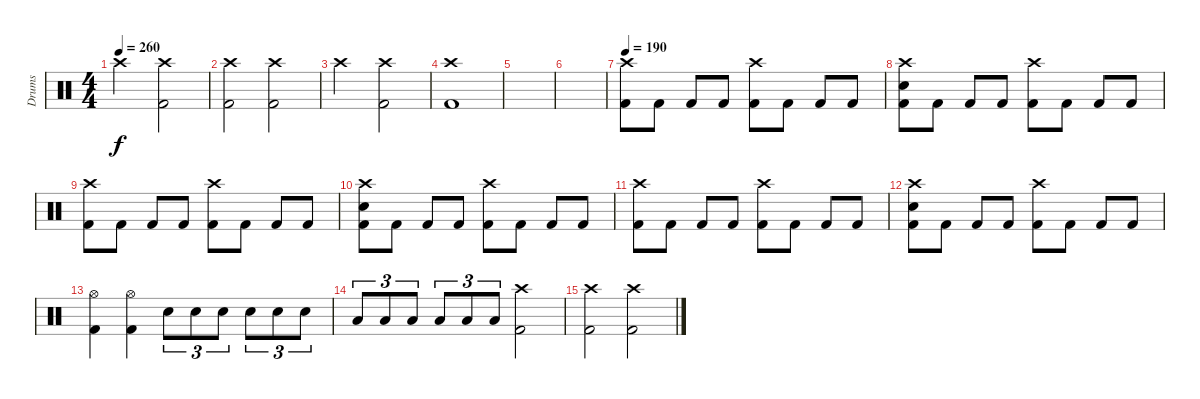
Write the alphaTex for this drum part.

\track ("Drums" "Drums") {instrument percussion}
\staff {score}
\articulation defaults
\ts (4 4)
\tempo 260
\clef neutral
\ks c "Crash high (hit)".2{dy f}
("Crash high (hit)" "Kick (hit) 2").2 |
("Crash high (hit)" "Kick (hit) 2").2 ("Crash high (hit)" "Kick (hit) 2").2 |
"Crash high (hit)".2 ("Crash high (hit)" "Kick (hit) 2").2 |
("Crash high (hit)" "Kick (hit) 2").1 |
|
|
\tempo 190
("Crash high (hit)" "Kick (hit) 2").8 "Kick (hit) 2".8 "Kick (hit) 2".8 "Kick (hit) 2".8 ("Crash high (hit)" "Kick (hit) 2").8 "Kick (hit) 2".8 "Kick (hit) 2".8 "Kick (hit) 2".8 |
("Crash high (hit)" "Snare (hit) 2" "Kick (hit) 2").8 "Kick (hit) 2".8 "Kick (hit) 2".8 "Kick (hit) 2".8 ("Crash high (hit)" "Kick (hit) 2").8 "Kick (hit) 2".8 "Kick (hit) 2".8 "Kick (hit) 2".8 |
("Crash high (hit)" "Kick (hit) 2").8 "Kick (hit) 2".8 "Kick (hit) 2".8 "Kick (hit) 2".8 ("Crash high (hit)" "Kick (hit) 2").8 "Kick (hit) 2".8 "Kick (hit) 2".8 "Kick (hit) 2".8 |
("Crash high (hit)" "Snare (hit) 2" "Kick (hit) 2").8 "Kick (hit) 2".8 "Kick (hit) 2".8 "Kick (hit) 2".8 ("Crash high (hit)" "Kick (hit) 2").8 "Kick (hit) 2".8 "Kick (hit) 2".8 "Kick (hit) 2".8 |
("Crash high (hit)" "Kick (hit) 2").8 "Kick (hit) 2".8 "Kick (hit) 2".8 "Kick (hit) 2".8 ("Crash high (hit)" "Kick (hit) 2").8 "Kick (hit) 2".8 "Kick (hit) 2".8 "Kick (hit) 2".8 |
("Crash high (hit)" "Snare (hit) 2" "Kick (hit) 2").8 "Kick (hit) 2".8 "Kick (hit) 2".8 "Kick (hit) 2".8 ("Crash high (hit)" "Kick (hit) 2").8 "Kick (hit) 2".8 "Kick (hit) 2".8 "Kick (hit) 2".8 |
("Hi-Hat (open)" "Kick (hit) 2").4 ("Hi-Hat (open)" "Kick (hit) 2").4 "Snare (hit) 2".8{tu (3 2)} "Snare (hit) 2".8{tu (3 2)} "Snare (hit) 2".8{tu (3 2)} "Snare (hit) 2".8{tu (3 2)} "Snare (hit) 2".8{tu (3 2)} "Snare (hit) 2".8{tu (3 2)} |
"Low Tom (hit)".8{tu (3 2)} "Low Tom (hit)".8{tu (3 2)} "Low Tom (hit)".8{tu (3 2)} "Low Tom (hit)".8{tu (3 2)} "Low Tom (hit)".8{tu (3 2)} "Low Tom (hit)".8{tu (3 2)} ("Crash high (hit)" "Kick (hit) 2").2 |
("Crash high (hit)" "Kick (hit) 2").2 ("Crash high (hit)" "Kick (hit) 2").2
